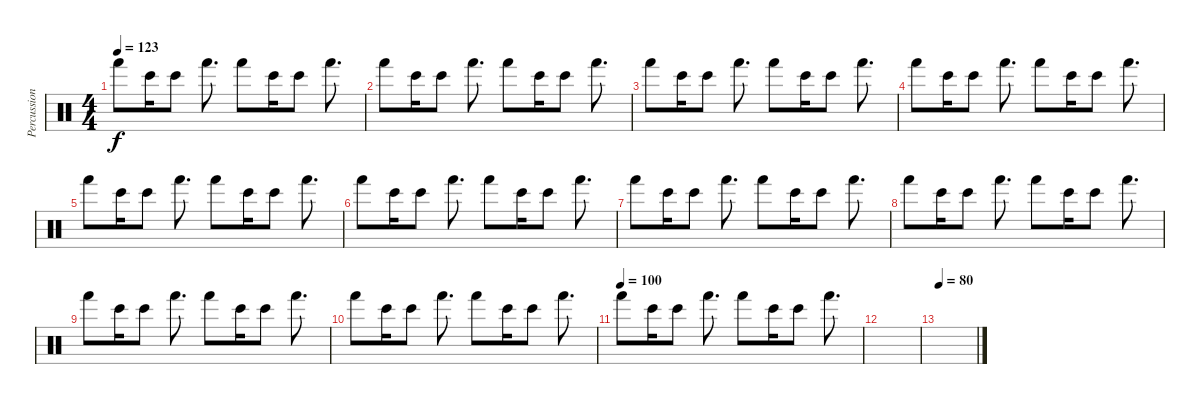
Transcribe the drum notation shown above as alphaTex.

\track ("Percussion (Mauro Refosco)" "Percussion") {instrument percussion}
\staff {score}
\articulation defaults
\ts (4 4)
\tempo 123
\clef neutral
\ks c "Hand (hit)".8{dy f} "Bongo High (hit)".16 "Bongo High (hit)".8 "Hand (hit)".8{d} "Hand (hit)".8 "Bongo High (hit)".16 "Bongo High (hit)".8 "Hand (hit)".8{d}
|
"Hand (hit)".8 "Bongo High (hit)".16 "Bongo High (hit)".8 "Hand (hit)".8{d} "Hand (hit)".8 "Bongo High (hit)".16 "Bongo High (hit)".8 "Hand (hit)".8{d} |
"Hand (hit)".8 "Bongo High (hit)".16 "Bongo High (hit)".8 "Hand (hit)".8{d} "Hand (hit)".8 "Bongo High (hit)".16 "Bongo High (hit)".8 "Hand (hit)".8{d} |
"Hand (hit)".8 "Bongo High (hit)".16 "Bongo High (hit)".8 "Hand (hit)".8{d} "Hand (hit)".8 "Bongo High (hit)".16 "Bongo High (hit)".8 "Hand (hit)".8{d} |
"Hand (hit)".8 "Bongo High (hit)".16 "Bongo High (hit)".8 "Hand (hit)".8{d} "Hand (hit)".8 "Bongo High (hit)".16 "Bongo High (hit)".8 "Hand (hit)".8{d} |
"Hand (hit)".8 "Bongo High (hit)".16 "Bongo High (hit)".8 "Hand (hit)".8{d} "Hand (hit)".8 "Bongo High (hit)".16 "Bongo High (hit)".8 "Hand (hit)".8{d} |
"Hand (hit)".8 "Bongo High (hit)".16 "Bongo High (hit)".8 "Hand (hit)".8{d} "Hand (hit)".8 "Bongo High (hit)".16 "Bongo High (hit)".8 "Hand (hit)".8{d} |
"Hand (hit)".8 "Bongo High (hit)".16 "Bongo High (hit)".8 "Hand (hit)".8{d} "Hand (hit)".8 "Bongo High (hit)".16 "Bongo High (hit)".8 "Hand (hit)".8{d} |
"Hand (hit)".8 "Bongo High (hit)".16 "Bongo High (hit)".8 "Hand (hit)".8{d} "Hand (hit)".8 "Bongo High (hit)".16 "Bongo High (hit)".8 "Hand (hit)".8{d} |
"Hand (hit)".8 "Bongo High (hit)".16 "Bongo High (hit)".8 "Hand (hit)".8{d} "Hand (hit)".8 "Bongo High (hit)".16 "Bongo High (hit)".8 "Hand (hit)".8{d} |
\tempo (100)
"Hand (hit)".8 "Bongo High (hit)".16 "Bongo High (hit)".8 "Hand (hit)".8{d} "Hand (hit)".8 "Bongo High (hit)".16 "Bongo High (hit)".8 "Hand (hit)".8{d} |
|
\tempo 80
